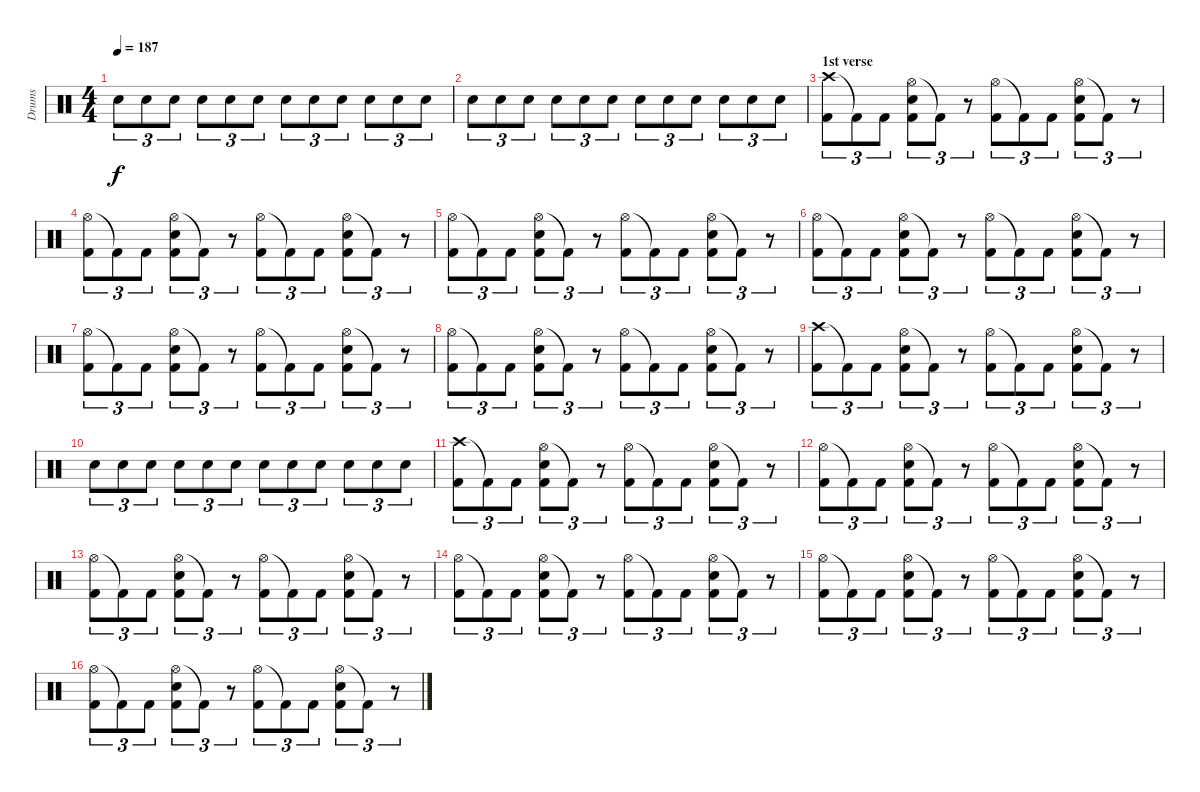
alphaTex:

\track ("Drums" "Drums") {instrument percussion}
\staff {score}
\articulation defaults
\ts (4 4)
\tempo 187
\clef neutral
\ks c "Snare (hit) 2".8{tu (3 2) dy f} "Snare (hit) 2".8{tu (3 2)} "Snare (hit) 2".8{tu (3 2)} "Snare (hit) 2".8{tu (3 2)} "Snare (hit) 2".8{tu (3 2)} "Snare (hit) 2".8{tu (3 2)} "Snare (hit) 2".8{tu (3 2)} "Snare (hit) 2".8{tu (3 2)} "Snare (hit) 2".8{tu (3 2)} "Snare (hit) 2".8{tu (3 2)} "Snare (hit) 2".8{tu (3 2)} "Snare (hit) 2".8{tu (3 2)}
|
"Snare (hit) 2".8{tu (3 2)} "Snare (hit) 2".8{tu (3 2)} "Snare (hit) 2".8{tu (3 2)} "Snare (hit) 2".8{tu (3 2)} "Snare (hit) 2".8{tu (3 2)} "Snare (hit) 2".8{tu (3 2)} "Snare (hit) 2".8{tu (3 2)} "Snare (hit) 2".8{tu (3 2)} "Snare (hit) 2".8{tu (3 2)} "Snare (hit) 2".8{tu (3 2)} "Snare (hit) 2".8{tu (3 2)} "Snare (hit) 2".8{tu (3 2)} |
\section ("" "1st verse")
("Crash high (hit)" "Kick (hit) 2").8{tu (3 2)} "Kick (hit) 2"{t}.8{tu (3 2)} "Kick (hit) 2".8{tu (3 2)} ("Hi-Hat (open)" "Snare (hit) 2" "Kick (hit) 2").8{tu (3 2)} "Kick (hit) 2"{t}.8{tu (3 2)} r.8{tu (3 2)} ("Hi-Hat (open)" "Kick (hit) 2").8{tu (3 2)} "Kick (hit) 2"{t}.8{tu (3 2)} "Kick (hit) 2".8{tu (3 2)} ("Hi-Hat (open)" "Snare (hit) 2" "Kick (hit) 2").8{tu (3 2)} "Kick (hit) 2"{t}.8{tu (3 2)} r.8{tu (3 2)} |
("Hi-Hat (open)" "Kick (hit) 2").8{tu (3 2)} "Kick (hit) 2"{t}.8{tu (3 2)} "Kick (hit) 2".8{tu (3 2)} ("Hi-Hat (open)" "Snare (hit) 2" "Kick (hit) 2").8{tu (3 2)} "Kick (hit) 2"{t}.8{tu (3 2)} r.8{tu (3 2)} ("Hi-Hat (open)" "Kick (hit) 2").8{tu (3 2)} "Kick (hit) 2"{t}.8{tu (3 2)} "Kick (hit) 2".8{tu (3 2)} ("Hi-Hat (open)" "Snare (hit) 2" "Kick (hit) 2").8{tu (3 2)} "Kick (hit) 2"{t}.8{tu (3 2)} r.8{tu (3 2)} |
("Hi-Hat (open)" "Kick (hit) 2").8{tu (3 2)} "Kick (hit) 2"{t}.8{tu (3 2)} "Kick (hit) 2".8{tu (3 2)} ("Hi-Hat (open)" "Snare (hit) 2" "Kick (hit) 2").8{tu (3 2)} "Kick (hit) 2"{t}.8{tu (3 2)} r.8{tu (3 2)} ("Hi-Hat (open)" "Kick (hit) 2").8{tu (3 2)} "Kick (hit) 2"{t}.8{tu (3 2)} "Kick (hit) 2".8{tu (3 2)} ("Hi-Hat (open)" "Snare (hit) 2" "Kick (hit) 2").8{tu (3 2)} "Kick (hit) 2"{t}.8{tu (3 2)} r.8{tu (3 2)} |
("Hi-Hat (open)" "Kick (hit) 2").8{tu (3 2)} "Kick (hit) 2"{t}.8{tu (3 2)} "Kick (hit) 2".8{tu (3 2)} ("Hi-Hat (open)" "Snare (hit) 2" "Kick (hit) 2").8{tu (3 2)} "Kick (hit) 2"{t}.8{tu (3 2)} r.8{tu (3 2)} ("Hi-Hat (open)" "Kick (hit) 2").8{tu (3 2)} "Kick (hit) 2"{t}.8{tu (3 2)} "Kick (hit) 2".8{tu (3 2)} ("Hi-Hat (open)" "Snare (hit) 2" "Kick (hit) 2").8{tu (3 2)} "Kick (hit) 2"{t}.8{tu (3 2)} r.8{tu (3 2)} |
("Hi-Hat (open)" "Kick (hit) 2").8{tu (3 2)} "Kick (hit) 2"{t}.8{tu (3 2)} "Kick (hit) 2".8{tu (3 2)} ("Hi-Hat (open)" "Snare (hit) 2" "Kick (hit) 2").8{tu (3 2)} "Kick (hit) 2"{t}.8{tu (3 2)} r.8{tu (3 2)} ("Hi-Hat (open)" "Kick (hit) 2").8{tu (3 2)} "Kick (hit) 2"{t}.8{tu (3 2)} "Kick (hit) 2".8{tu (3 2)} ("Hi-Hat (open)" "Snare (hit) 2" "Kick (hit) 2").8{tu (3 2)} "Kick (hit) 2"{t}.8{tu (3 2)} r.8{tu (3 2)} |
("Hi-Hat (open)" "Kick (hit) 2").8{tu (3 2)} "Kick (hit) 2"{t}.8{tu (3 2)} "Kick (hit) 2".8{tu (3 2)} ("Hi-Hat (open)" "Snare (hit) 2" "Kick (hit) 2").8{tu (3 2)} "Kick (hit) 2"{t}.8{tu (3 2)} r.8{tu (3 2)} ("Hi-Hat (open)" "Kick (hit) 2").8{tu (3 2)} "Kick (hit) 2"{t}.8{tu (3 2)} "Kick (hit) 2".8{tu (3 2)} ("Hi-Hat (open)" "Snare (hit) 2" "Kick (hit) 2").8{tu (3 2)} "Kick (hit) 2"{t}.8{tu (3 2)} r.8{tu (3 2)} |
("Crash high (hit)" "Kick (hit) 2").8{tu (3 2)} "Kick (hit) 2"{t}.8{tu (3 2)} "Kick (hit) 2".8{tu (3 2)} ("Hi-Hat (open)" "Snare (hit) 2" "Kick (hit) 2").8{tu (3 2)} "Kick (hit) 2"{t}.8{tu (3 2)} r.8{tu (3 2)} ("Hi-Hat (open)" "Kick (hit) 2").8{tu (3 2)} "Kick (hit) 2"{t}.8{tu (3 2)} "Kick (hit) 2".8{tu (3 2)} ("Hi-Hat (open)" "Snare (hit) 2" "Kick (hit) 2").8{tu (3 2)} "Kick (hit) 2"{t}.8{tu (3 2)} r.8{tu (3 2)} |
"Snare (hit) 2".8{tu (3 2)} "Snare (hit) 2".8{tu (3 2)} "Snare (hit) 2".8{tu (3 2)} "Snare (hit) 2".8{tu (3 2)} "Snare (hit) 2".8{tu (3 2)} "Snare (hit) 2".8{tu (3 2)} "Snare (hit) 2".8{tu (3 2)} "Snare (hit) 2".8{tu (3 2)} "Snare (hit) 2".8{tu (3 2)} "Snare (hit) 2".8{tu (3 2)} "Snare (hit) 2".8{tu (3 2)} "Snare (hit) 2".8{tu (3 2)} |
("Crash high (hit)" "Kick (hit) 2").8{tu (3 2)} "Kick (hit) 2"{t}.8{tu (3 2)} "Kick (hit) 2".8{tu (3 2)} ("Hi-Hat (open)" "Snare (hit) 2" "Kick (hit) 2").8{tu (3 2)} "Kick (hit) 2"{t}.8{tu (3 2)} r.8{tu (3 2)} ("Hi-Hat (open)" "Kick (hit) 2").8{tu (3 2)} "Kick (hit) 2"{t}.8{tu (3 2)} "Kick (hit) 2".8{tu (3 2)} ("Hi-Hat (open)" "Snare (hit) 2" "Kick (hit) 2").8{tu (3 2)} "Kick (hit) 2"{t}.8{tu (3 2)} r.8{tu (3 2)} |
("Hi-Hat (open)" "Kick (hit) 2").8{tu (3 2)} "Kick (hit) 2"{t}.8{tu (3 2)} "Kick (hit) 2".8{tu (3 2)} ("Hi-Hat (open)" "Snare (hit) 2" "Kick (hit) 2").8{tu (3 2)} "Kick (hit) 2"{t}.8{tu (3 2)} r.8{tu (3 2)} ("Hi-Hat (open)" "Kick (hit) 2").8{tu (3 2)} "Kick (hit) 2"{t}.8{tu (3 2)} "Kick (hit) 2".8{tu (3 2)} ("Hi-Hat (open)" "Snare (hit) 2" "Kick (hit) 2").8{tu (3 2)} "Kick (hit) 2"{t}.8{tu (3 2)} r.8{tu (3 2)} |
("Hi-Hat (open)" "Kick (hit) 2").8{tu (3 2)} "Kick (hit) 2"{t}.8{tu (3 2)} "Kick (hit) 2".8{tu (3 2)} ("Hi-Hat (open)" "Snare (hit) 2" "Kick (hit) 2").8{tu (3 2)} "Kick (hit) 2"{t}.8{tu (3 2)} r.8{tu (3 2)} ("Hi-Hat (open)" "Kick (hit) 2").8{tu (3 2)} "Kick (hit) 2"{t}.8{tu (3 2)} "Kick (hit) 2".8{tu (3 2)} ("Hi-Hat (open)" "Snare (hit) 2" "Kick (hit) 2").8{tu (3 2)} "Kick (hit) 2"{t}.8{tu (3 2)} r.8{tu (3 2)} |
("Hi-Hat (open)" "Kick (hit) 2").8{tu (3 2)} "Kick (hit) 2"{t}.8{tu (3 2)} "Kick (hit) 2".8{tu (3 2)} ("Hi-Hat (open)" "Snare (hit) 2" "Kick (hit) 2").8{tu (3 2)} "Kick (hit) 2"{t}.8{tu (3 2)} r.8{tu (3 2)} ("Hi-Hat (open)" "Kick (hit) 2").8{tu (3 2)} "Kick (hit) 2"{t}.8{tu (3 2)} "Kick (hit) 2".8{tu (3 2)} ("Hi-Hat (open)" "Snare (hit) 2" "Kick (hit) 2").8{tu (3 2)} "Kick (hit) 2"{t}.8{tu (3 2)} r.8{tu (3 2)} |
("Hi-Hat (open)" "Kick (hit) 2").8{tu (3 2)} "Kick (hit) 2"{t}.8{tu (3 2)} "Kick (hit) 2".8{tu (3 2)} ("Hi-Hat (open)" "Snare (hit) 2" "Kick (hit) 2").8{tu (3 2)} "Kick (hit) 2"{t}.8{tu (3 2)} r.8{tu (3 2)} ("Hi-Hat (open)" "Kick (hit) 2").8{tu (3 2)} "Kick (hit) 2"{t}.8{tu (3 2)} "Kick (hit) 2".8{tu (3 2)} ("Hi-Hat (open)" "Snare (hit) 2" "Kick (hit) 2").8{tu (3 2)} "Kick (hit) 2"{t}.8{tu (3 2)} r.8{tu (3 2)} |
("Hi-Hat (open)" "Kick (hit) 2").8{tu (3 2)} "Kick (hit) 2"{t}.8{tu (3 2)} "Kick (hit) 2".8{tu (3 2)} ("Hi-Hat (open)" "Snare (hit) 2" "Kick (hit) 2").8{tu (3 2)} "Kick (hit) 2"{t}.8{tu (3 2)} r.8{tu (3 2)} ("Hi-Hat (open)" "Kick (hit) 2").8{tu (3 2)} "Kick (hit) 2"{t}.8{tu (3 2)} "Kick (hit) 2".8{tu (3 2)} ("Hi-Hat (open)" "Snare (hit) 2" "Kick (hit) 2").8{tu (3 2)} "Kick (hit) 2"{t}.8{tu (3 2)} r.8{tu (3 2)}
